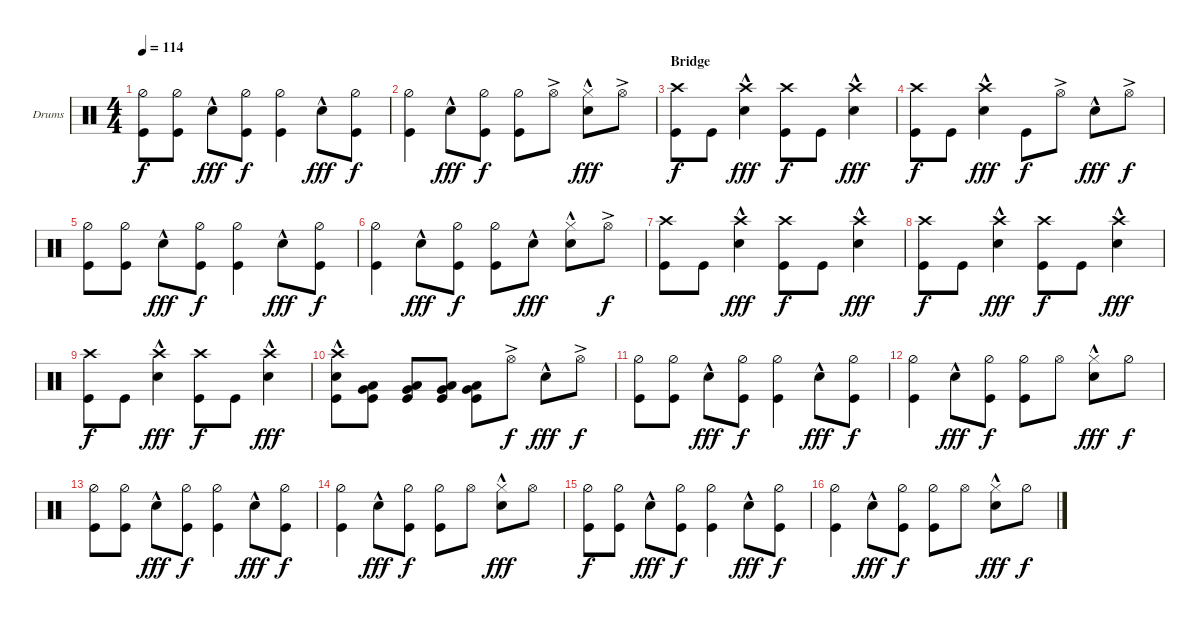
\defaultSystemsLayout 4
\bracketExtendMode groupsimilarinstruments
\firstSystemTrackNameOrientation horizontal
\otherSystemsTrackNameOrientation horizontal
\track ("Drumkit" "Drums") {instrument percussion}
\staff {score}
\articulation defaults
\ts (4 4)
\tempo 114
\clef neutral
\ks c
("Hi-Hat (half)" "Kick (hit)").8{dy f} ("Hi-Hat (half)" "Kick (hit)").8 "Snare (hit) 2"{hac}.8{dy fff} ("Kick (hit)" "Hi-Hat (half)").8{dy f} ("Kick (hit)" "Hi-Hat (half)").4 "Snare (hit) 2"{hac}.8{dy fff} ("Kick (hit)" "Hi-Hat (half)").8{dy f} |
("Kick (hit)" "Hi-Hat (half)").4 "Snare (hit) 2"{hac}.8{dy fff} ("Kick (hit)" "Hi-Hat (half)").8{dy f} ("Kick (hit)" "Hi-Hat (half)").8 "Hi-Hat (open)"{ac}.8 ("Snare (hit) 2"{hac} "Hi-Hat (closed)").8{dy fff} "Hi-Hat (open)"{ac}.8 |
\section ("" "Bridge")
("Crash high (hit)" "Kick (hit)").8{dy f} "Kick (hit)".8 ("Snare (hit) 2"{hac} "Crash high (hit)").4{dy fff} ("Crash high (hit)" "Kick (hit)").8{dy f} "Kick (hit)".8 ("Snare (hit) 2"{hac} "Crash high (hit)").4{dy fff} |
("Crash high (hit)" "Kick (hit)").8{dy f} "Kick (hit)".8 ("Snare (hit) 2"{hac} "Crash high (hit)").4{dy fff} "Kick (hit)".8{dy f} "Hi-Hat (open)"{ac}.8 "Snare (hit) 2"{hac}.8{dy fff} "Hi-Hat (open)"{ac}.8{dy f} |
("Hi-Hat (half)" "Kick (hit)").8 ("Hi-Hat (half)" "Kick (hit)").8 "Snare (hit) 2"{hac}.8{dy fff} ("Kick (hit)" "Hi-Hat (half)").8{dy f} ("Kick (hit)" "Hi-Hat (half)").4 "Snare (hit) 2"{hac}.8{dy fff} ("Kick (hit)" "Hi-Hat (half)").8{dy f} |
("Kick (hit)" "Hi-Hat (half)").4 "Snare (hit) 2"{hac}.8{dy fff} ("Kick (hit)" "Hi-Hat (half)").8{dy f} ("Kick (hit)" "Hi-Hat (half)").8 "Snare (hit) 2"{hac}.8{dy fff} ("Hi-Hat (closed)" "Snare (hit) 2"{hac}).8 "Hi-Hat (open)"{ac}.8{dy f} |
("Crash high (hit)" "Kick (hit)").8 "Kick (hit)".8 ("Snare (hit) 2"{hac} "Crash high (hit)").4{dy fff} ("Crash high (hit)" "Kick (hit)").8{dy f} "Kick (hit)".8 ("Snare (hit) 2"{hac} "Crash high (hit)").4{dy fff} |
("Crash high (hit)" "Kick (hit)").8{dy f} "Kick (hit)".8 ("Snare (hit) 2"{hac} "Crash high (hit)").4{dy fff} ("Crash high (hit)" "Kick (hit)").8{dy f} "Kick (hit)".8 ("Snare (hit) 2"{hac} "Crash high (hit)").4{dy fff} |
("Crash high (hit)" "Kick (hit)").8{dy f} "Kick (hit)".8 ("Snare (hit) 2"{hac} "Crash high (hit)").4{dy fff} ("Crash high (hit)" "Kick (hit)").8{dy f} "Kick (hit)".8 ("Snare (hit) 2"{hac} "Crash high (hit)").4{dy fff} |
("Crash high (hit)" "Snare (hit) 2"{hac} "Kick (hit)").8 ("Kick (hit)" "Very Low Tom (hit)" "Low Tom (hit)").8 ("Kick (hit)" "Low Tom (hit)" "Very Low Tom (hit)").8 ("Kick (hit)" "Very Low Tom (hit)" "Low Tom (hit)").8 ("Kick (hit)" "Very Low Tom (hit)" "Low Tom (hit)").8 "Hi-Hat (open)"{ac}.8{dy f} "Snare (hit) 2"{hac}.8{dy fff} "Hi-Hat (open)"{ac}.8{dy f} |
("Hi-Hat (half)" "Kick (hit)").8 ("Hi-Hat (half)" "Kick (hit)").8 "Snare (hit) 2"{hac}.8{dy fff} ("Kick (hit)" "Hi-Hat (half)").8{dy f} ("Kick (hit)" "Hi-Hat (half)").4 "Snare (hit) 2"{hac}.8{dy fff} ("Kick (hit)" "Hi-Hat (half)").8{dy f} |
("Kick (hit)" "Hi-Hat (half)").4 "Snare (hit) 2"{hac}.8{dy fff} ("Kick (hit)" "Hi-Hat (half)").8{dy f} ("Kick (hit)" "Hi-Hat (half)").8 "Hi-Hat (open)".8 ("Hi-Hat (closed)" "Snare (hit) 2"{hac}).8{dy fff} "Hi-Hat (half)".8{dy f} |
("Hi-Hat (half)" "Kick (hit)").8 ("Hi-Hat (half)" "Kick (hit)").8 "Snare (hit) 2"{hac}.8{dy fff} ("Kick (hit)" "Hi-Hat (half)").8{dy f} ("Kick (hit)" "Hi-Hat (half)").4 "Snare (hit) 2"{hac}.8{dy fff} ("Kick (hit)" "Hi-Hat (half)").8{dy f} |
("Kick (hit)" "Hi-Hat (half)").4 "Snare (hit) 2"{hac}.8{dy fff} ("Kick (hit)" "Hi-Hat (half)").8{dy f} ("Kick (hit)" "Hi-Hat (half)").8 "Hi-Hat (open)".8 ("Snare (hit) 2"{hac} "Hi-Hat (closed)").8{dy fff} "Hi-Hat (open)".8 |
("Hi-Hat (half)" "Kick (hit)").8{dy f} ("Hi-Hat (half)" "Kick (hit)").8 "Snare (hit) 2"{hac}.8{dy fff} ("Kick (hit)" "Hi-Hat (half)").8{dy f} ("Kick (hit)" "Hi-Hat (half)").4 "Snare (hit) 2"{hac}.8{dy fff} ("Kick (hit)" "Hi-Hat (half)").8{dy f} |
("Kick (hit)" "Hi-Hat (half)").4 "Snare (hit) 2"{hac}.8{dy fff} ("Kick (hit)" "Hi-Hat (half)").8{dy f} ("Kick (hit)" "Hi-Hat (half)").8 "Hi-Hat (open)".8 ("Hi-Hat (closed)" "Snare (hit) 2"{hac}).8{dy fff} "Hi-Hat (half)".8{dy f}
